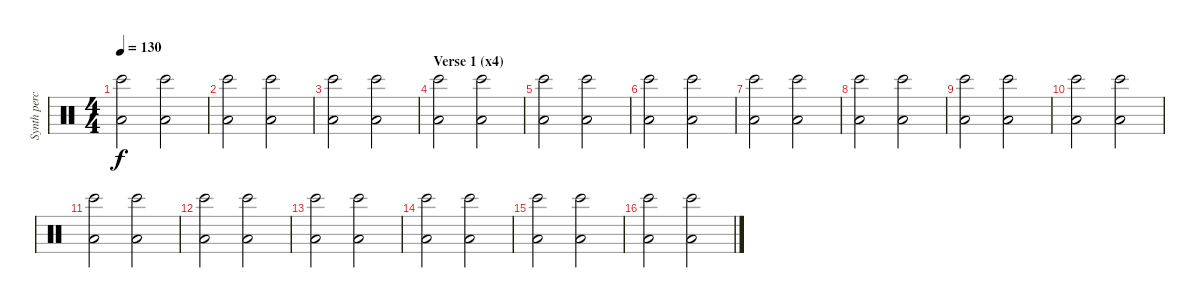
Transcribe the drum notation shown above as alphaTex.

\track ("Synth perc" "Synth perc") {instrument percussion}
\staff {score}
\articulation defaults
\ts (4 4)
\tempo 130
\clef neutral
\ks c
("Bongo High (hit)" "Low Tom (hit)").2{dy f} ("Bongo High (hit)" "Low Tom (hit)").2 |
("Bongo High (hit)" "Low Tom (hit)").2 ("Bongo High (hit)" "Low Tom (hit)").2 |
("Bongo High (hit)" "Low Tom (hit)").2 ("Bongo High (hit)" "Low Tom (hit)").2 |
\section ("" "Verse 1 (x4)")
("Bongo High (hit)" "Low Tom (hit)").2 ("Bongo High (hit)" "Low Tom (hit)").2 |
("Bongo High (hit)" "Low Tom (hit)").2 ("Bongo High (hit)" "Low Tom (hit)").2 |
("Bongo High (hit)" "Low Tom (hit)").2 ("Bongo High (hit)" "Low Tom (hit)").2 |
("Bongo High (hit)" "Low Tom (hit)").2 ("Bongo High (hit)" "Low Tom (hit)").2 |
("Bongo High (hit)" "Low Tom (hit)").2 ("Bongo High (hit)" "Low Tom (hit)").2 |
("Bongo High (hit)" "Low Tom (hit)").2 ("Bongo High (hit)" "Low Tom (hit)").2 |
("Bongo High (hit)" "Low Tom (hit)").2 ("Bongo High (hit)" "Low Tom (hit)").2 |
("Bongo High (hit)" "Low Tom (hit)").2 ("Bongo High (hit)" "Low Tom (hit)").2 |
("Bongo High (hit)" "Low Tom (hit)").2 ("Bongo High (hit)" "Low Tom (hit)").2 |
("Bongo High (hit)" "Low Tom (hit)").2 ("Bongo High (hit)" "Low Tom (hit)").2 |
("Bongo High (hit)" "Low Tom (hit)").2 ("Bongo High (hit)" "Low Tom (hit)").2 |
("Bongo High (hit)" "Low Tom (hit)").2 ("Bongo High (hit)" "Low Tom (hit)").2 |
("Bongo High (hit)" "Low Tom (hit)").2 ("Bongo High (hit)" "Low Tom (hit)").2
